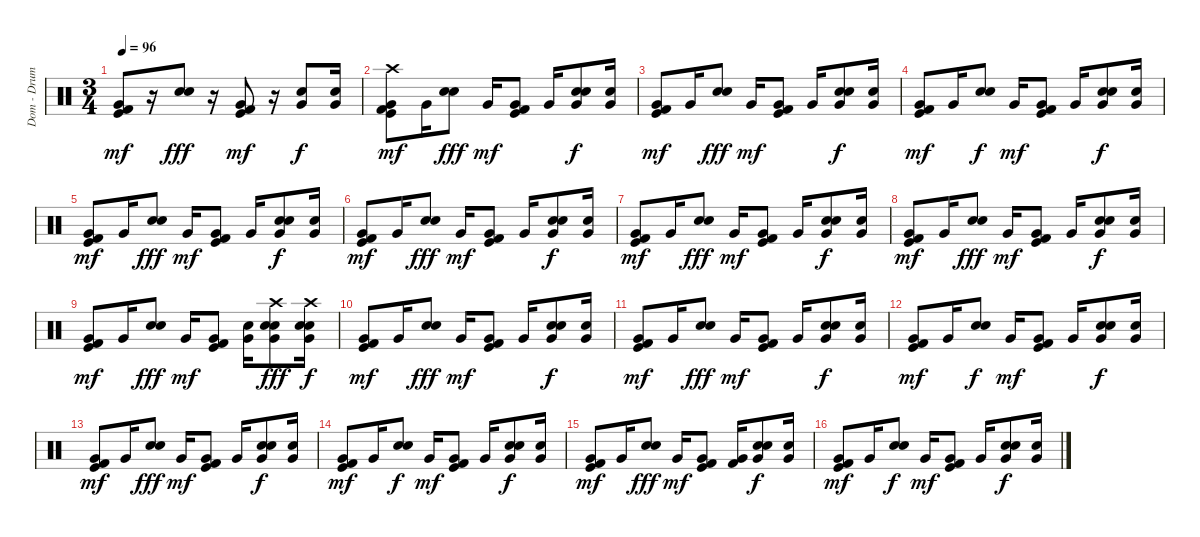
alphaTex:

\track ("Dom - Drums" "Dom - Drum") {instrument percussion}
\staff {score}
\articulation defaults
\ts (3 4)
\tempo 96
\clef neutral
\ks c
("Very Low Tom (hit)" "Kick (hit)" "Kick (hit) 2").8{dy mf} r.16 ("Electric Snare (hit)" "Snare (hit) 2").8{dy fff} r.16 ("Very Low Tom (hit)" "Kick (hit)" "Kick (hit) 2").8{dy mf} r.16 ("Very Low Tom (hit)" "Hand Clap (hit)").8{dy f} ("Very Low Tom (hit)" "Hand Clap (hit)").16 |
("Crash high (hit)" "Very Low Tom (hit)" "Kick (hit)" "Kick (hit) 2").8{dy mf} "Very Low Tom (hit)".16 ("Electric Snare (hit)" "Snare (hit) 2").8{dy fff} "Very Low Tom (hit)".16{dy mf} ("Very Low Tom (hit)" "Kick (hit)" "Kick (hit) 2").8 "Very Low Tom (hit)".16 ("Very Low Tom (hit)" "Snare (hit) 2" "Hand Clap (hit)").8{dy f} ("Very Low Tom (hit)" "Hand Clap (hit)").16 |
("Very Low Tom (hit)" "Kick (hit)" "Kick (hit) 2").8{dy mf} "Very Low Tom (hit)".16 ("Electric Snare (hit)" "Snare (hit) 2").8{dy fff} "Very Low Tom (hit)".16{dy mf} ("Very Low Tom (hit)" "Kick (hit)" "Kick (hit) 2").8 "Very Low Tom (hit)".16 ("Very Low Tom (hit)" "Snare (hit) 2" "Hand Clap (hit)").8{dy f} ("Very Low Tom (hit)" "Hand Clap (hit)").16 |
("Very Low Tom (hit)" "Kick (hit)" "Kick (hit) 2").8{dy mf} "Very Low Tom (hit)".16 ("Electric Snare (hit)" "Snare (hit) 2").8{dy f} "Very Low Tom (hit)".16{dy mf} ("Very Low Tom (hit)" "Kick (hit)" "Kick (hit) 2").8 "Very Low Tom (hit)".16 ("Very Low Tom (hit)" "Snare (hit) 2" "Hand Clap (hit)").8{dy f} ("Very Low Tom (hit)" "Hand Clap (hit)").16 |
("Very Low Tom (hit)" "Kick (hit)" "Kick (hit) 2").8{dy mf} "Very Low Tom (hit)".16 ("Electric Snare (hit)" "Snare (hit) 2").8{dy fff} "Very Low Tom (hit)".16{dy mf} ("Very Low Tom (hit)" "Kick (hit)" "Kick (hit) 2").8 "Very Low Tom (hit)".16 ("Very Low Tom (hit)" "Snare (hit) 2" "Hand Clap (hit)").8{dy f} ("Very Low Tom (hit)" "Hand Clap (hit)").16 |
("Very Low Tom (hit)" "Kick (hit)" "Kick (hit) 2").8{dy mf} "Very Low Tom (hit)".16 ("Electric Snare (hit)" "Snare (hit) 2").8{dy fff} "Very Low Tom (hit)".16{dy mf} ("Very Low Tom (hit)" "Kick (hit)" "Kick (hit) 2").8 "Very Low Tom (hit)".16 ("Very Low Tom (hit)" "Snare (hit) 2" "Hand Clap (hit)").8{dy f} ("Very Low Tom (hit)" "Hand Clap (hit)").16 |
("Very Low Tom (hit)" "Kick (hit)" "Kick (hit) 2").8{dy mf} "Very Low Tom (hit)".16 ("Electric Snare (hit)" "Snare (hit) 2").8{dy fff} "Very Low Tom (hit)".16{dy mf} ("Very Low Tom (hit)" "Kick (hit)" "Kick (hit) 2").8 "Very Low Tom (hit)".16 ("Very Low Tom (hit)" "Snare (hit) 2" "Hand Clap (hit)").8{dy f} ("Very Low Tom (hit)" "Hand Clap (hit)").16 |
("Very Low Tom (hit)" "Kick (hit)" "Kick (hit) 2").8{dy mf} "Very Low Tom (hit)".16 ("Electric Snare (hit)" "Snare (hit) 2").8{dy fff} "Very Low Tom (hit)".16{dy mf} ("Very Low Tom (hit)" "Kick (hit)" "Kick (hit) 2").8 "Very Low Tom (hit)".16 ("Very Low Tom (hit)" "Snare (hit) 2" "Hand Clap (hit)").8{dy f} ("Very Low Tom (hit)" "Hand Clap (hit)").16 |
("Very Low Tom (hit)" "Kick (hit)" "Kick (hit) 2").8{dy mf} "Very Low Tom (hit)".16 ("Electric Snare (hit)" "Snare (hit) 2").8{dy fff} "Very Low Tom (hit)".16{dy mf} ("Very Low Tom (hit)" "Kick (hit)" "Kick (hit) 2").8 ("Very Low Tom (hit)" "Electric Snare (hit)").16 ("Crash high (hit)" "Very Low Tom (hit)" "Snare (hit) 2" "Hand Clap (hit)").8{dy fff} ("Crash high (hit)" "Very Low Tom (hit)" "Snare (hit) 2" "Hand Clap (hit)").16{dy f} |
("Very Low Tom (hit)" "Kick (hit)" "Kick (hit) 2").8{dy mf} "Very Low Tom (hit)".16 ("Electric Snare (hit)" "Snare (hit) 2").8{dy fff} "Very Low Tom (hit)".16{dy mf} ("Very Low Tom (hit)" "Kick (hit)" "Kick (hit) 2").8 "Very Low Tom (hit)".16 ("Very Low Tom (hit)" "Snare (hit) 2" "Hand Clap (hit)").8{dy f} ("Very Low Tom (hit)" "Hand Clap (hit)").16 |
("Very Low Tom (hit)" "Kick (hit)" "Kick (hit) 2").8{dy mf} "Very Low Tom (hit)".16 ("Electric Snare (hit)" "Snare (hit) 2").8{dy fff} "Very Low Tom (hit)".16{dy mf} ("Very Low Tom (hit)" "Kick (hit)" "Kick (hit) 2").8 "Very Low Tom (hit)".16 ("Very Low Tom (hit)" "Snare (hit) 2" "Hand Clap (hit)").8{dy f} ("Very Low Tom (hit)" "Hand Clap (hit)").16 |
("Very Low Tom (hit)" "Kick (hit)" "Kick (hit) 2").8{dy mf} "Very Low Tom (hit)".16 ("Electric Snare (hit)" "Snare (hit) 2").8{dy f} "Very Low Tom (hit)".16{dy mf} ("Very Low Tom (hit)" "Kick (hit)" "Kick (hit) 2").8 "Very Low Tom (hit)".16 ("Very Low Tom (hit)" "Snare (hit) 2" "Hand Clap (hit)").8{dy f} ("Very Low Tom (hit)" "Hand Clap (hit)").16 |
("Very Low Tom (hit)" "Kick (hit)" "Kick (hit) 2").8{dy mf} "Very Low Tom (hit)".16 ("Electric Snare (hit)" "Snare (hit) 2").8{dy fff} "Very Low Tom (hit)".16{dy mf} ("Very Low Tom (hit)" "Kick (hit)" "Kick (hit) 2").8 "Very Low Tom (hit)".16 ("Very Low Tom (hit)" "Snare (hit) 2" "Hand Clap (hit)").8{dy f} ("Very Low Tom (hit)" "Hand Clap (hit)").16 |
("Very Low Tom (hit)" "Kick (hit)" "Kick (hit) 2").8{dy mf} "Very Low Tom (hit)".16 ("Electric Snare (hit)" "Snare (hit) 2").8{dy f} "Very Low Tom (hit)".16{dy mf} ("Very Low Tom (hit)" "Kick (hit)" "Kick (hit) 2").8 "Very Low Tom (hit)".16 ("Very Low Tom (hit)" "Snare (hit) 2" "Hand Clap (hit)").8{dy f} ("Very Low Tom (hit)" "Hand Clap (hit)").16 |
("Very Low Tom (hit)" "Kick (hit)" "Kick (hit) 2").8{dy mf} "Very Low Tom (hit)".16 ("Electric Snare (hit)" "Snare (hit) 2").8{dy fff} "Very Low Tom (hit)".16{dy mf} ("Very Low Tom (hit)" "Kick (hit)" "Kick (hit) 2").8 ("Very Low Tom (hit)" "Kick (hit) 2").16 ("Very Low Tom (hit)" "Snare (hit) 2" "Hand Clap (hit)").8{dy f} ("Very Low Tom (hit)" "Hand Clap (hit)").16 |
("Very Low Tom (hit)" "Kick (hit)" "Kick (hit) 2").8{dy mf} "Very Low Tom (hit)".16 ("Electric Snare (hit)" "Snare (hit) 2").8{dy f} "Very Low Tom (hit)".16{dy mf} ("Very Low Tom (hit)" "Kick (hit)" "Kick (hit) 2").8 "Very Low Tom (hit)".16 ("Very Low Tom (hit)" "Snare (hit) 2" "Hand Clap (hit)").8{dy f} ("Very Low Tom (hit)" "Hand Clap (hit)").16
